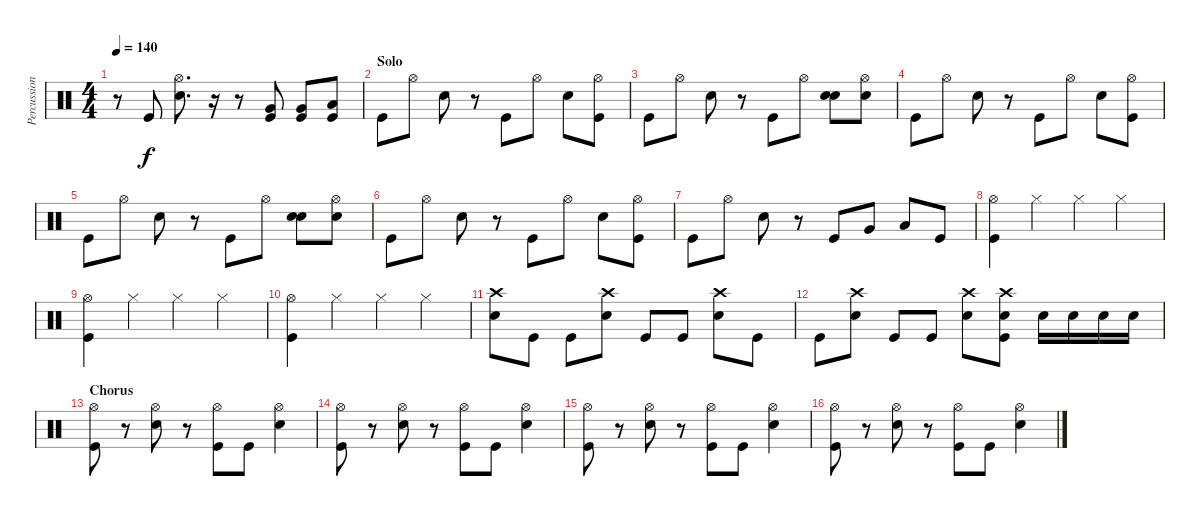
\track ("Percussions" "Percussion") {instrument percussion}
\staff {score}
\articulation defaults
\ts (4 4)
\tempo 140
\clef neutral
\ks c
r.8{dy f} "Kick (hit)".8 ("Hi-Hat (open)" "Snare (hit) 2").8{d} r.16 r.8 ("Very Low Tom (hit)" "Kick (hit)").8 ("Very Low Tom (hit)" "Kick (hit)").8 ("Low Floor Tom (hit)" "Kick (hit)").8 |
\section ("" "Solo")
"Kick (hit)".8 "Hi-Hat (open)".8 "Electric Snare (hit)".8 r.8 "Kick (hit)".8 "Hi-Hat (open)".8 "Electric Snare (hit)".8 ("Hi-Hat (open)" "Kick (hit)").8 |
"Kick (hit)".8 "Hi-Hat (open)".8 "Electric Snare (hit)".8 r.8 "Kick (hit)".8 "Hi-Hat (open)".8 ("Electric Snare (hit)" "Hand Clap (hit)").8 ("Hi-Hat (open)" "Hand Clap (hit)").8 |
"Kick (hit)".8 "Hi-Hat (open)".8 "Electric Snare (hit)".8 r.8 "Kick (hit)".8 "Hi-Hat (open)".8 "Electric Snare (hit)".8 ("Hi-Hat (open)" "Kick (hit)").8 |
"Kick (hit)".8 "Hi-Hat (open)".8 "Electric Snare (hit)".8 r.8 "Kick (hit)".8 "Hi-Hat (open)".8 ("Electric Snare (hit)" "Hand Clap (hit)").8 ("Hi-Hat (open)" "Hand Clap (hit)").8 |
"Kick (hit)".8 "Hi-Hat (open)".8 "Electric Snare (hit)".8 r.8 "Kick (hit)".8 "Hi-Hat (open)".8 "Electric Snare (hit)".8 ("Hi-Hat (open)" "Kick (hit)").8 |
"Kick (hit)".8 "Hi-Hat (open)".8 "Electric Snare (hit)".8 r.8 "Kick (hit)".8 "Very Low Tom (hit)".8 "Low Floor Tom (hit)".8 "Kick (hit)".8 |
("Hi-Hat (open)" "Kick (hit)").4 "Hi-Hat (closed)".4 "Hi-Hat (closed)".4 "Hi-Hat (closed)".4 |
("Hi-Hat (open)" "Kick (hit)").4 "Hi-Hat (closed)".4 "Hi-Hat (closed)".4 "Hi-Hat (closed)".4 |
("Hi-Hat (open)" "Kick (hit)").4 "Hi-Hat (closed)".4 "Hi-Hat (closed)".4 "Hi-Hat (closed)".4 |
("Crash high (hit)" "Electric Snare (hit)").8 "Kick (hit)".8 "Kick (hit)".8 ("Crash high (hit)" "Electric Snare (hit)").8 "Kick (hit)".8 "Kick (hit)".8 ("Crash high (hit)" "Electric Snare (hit)").8 "Kick (hit)".8 |
"Kick (hit)".8 ("Crash high (hit)" "Electric Snare (hit)").8 "Kick (hit)".8 "Kick (hit)".8 ("Crash high (hit)" "Electric Snare (hit)").8 ("Crash high (hit)" "Electric Snare (hit)" "Kick (hit)").8 "Electric Snare (hit)".16 "Electric Snare (hit)".16 "Electric Snare (hit)".16 "Electric Snare (hit)".16 |
\section ("" "Chorus")
("Hi-Hat (open)" "Kick (hit)").8 r.8 ("Hi-Hat (open)" "Snare (hit) 2").8 r.8 ("Hi-Hat (open)" "Kick (hit)").8 "Kick (hit)".8 ("Hi-Hat (open)" "Snare (hit) 2").4 |
("Hi-Hat (open)" "Kick (hit)").8 r.8 ("Hi-Hat (open)" "Snare (hit) 2").8 r.8 ("Hi-Hat (open)" "Kick (hit)").8 "Kick (hit)".8 ("Hi-Hat (open)" "Snare (hit) 2").4 |
("Hi-Hat (open)" "Kick (hit)").8 r.8 ("Hi-Hat (open)" "Snare (hit) 2").8 r.8 ("Hi-Hat (open)" "Kick (hit)").8 "Kick (hit)".8 ("Hi-Hat (open)" "Snare (hit) 2").4 |
("Hi-Hat (open)" "Kick (hit)").8 r.8 ("Hi-Hat (open)" "Snare (hit) 2").8 r.8 ("Hi-Hat (open)" "Kick (hit)").8 "Kick (hit)".8 ("Hi-Hat (open)" "Snare (hit) 2").4
